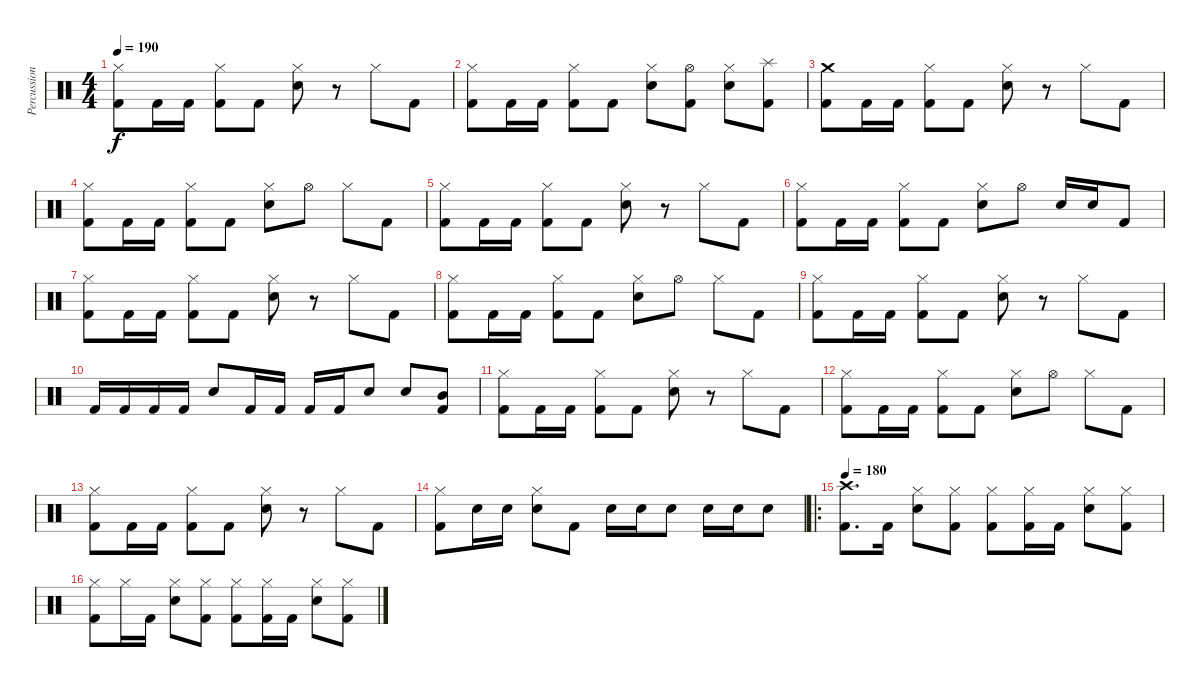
\track ("Percussions" "Percussion") {instrument percussion}
\staff {score}
\articulation defaults
\ts (4 4)
\tempo 190
\clef neutral
\ks c
("Hi-Hat (closed)" "Kick (hit) 2").8{dy f} "Kick (hit) 2".16 "Kick (hit) 2".16 ("Hi-Hat (closed)" "Kick (hit) 2").8 "Kick (hit) 2".8 ("Hi-Hat (closed)" "Electric Snare (hit)").8 r.8 "Hi-Hat (closed)".8 "Kick (hit) 2".8 |
("Hi-Hat (closed)" "Kick (hit) 2").8 "Kick (hit) 2".16 "Kick (hit) 2".16 ("Hi-Hat (closed)" "Kick (hit) 2").8 "Kick (hit) 2".8 ("Hi-Hat (closed)" "Electric Snare (hit)").8 ("Hi-Hat (open)" "Kick (hit) 2").8 ("Hi-Hat (closed)" "Electric Snare (hit)").8 ("Splash (hit)" "Kick (hit) 2").8 |
("Crash medium (hit)" "Kick (hit) 2").8 "Kick (hit) 2".16 "Kick (hit) 2".16 ("Hi-Hat (closed)" "Kick (hit) 2").8 "Kick (hit) 2".8 ("Hi-Hat (closed)" "Electric Snare (hit)").8 r.8 "Hi-Hat (closed)".8 "Kick (hit) 2".8 |
("Hi-Hat (closed)" "Kick (hit) 2").8 "Kick (hit) 2".16 "Kick (hit) 2".16 ("Hi-Hat (closed)" "Kick (hit) 2").8 "Kick (hit) 2".8 ("Hi-Hat (closed)" "Electric Snare (hit)").8 "Hi-Hat (open)".8 "Hi-Hat (closed)".8 "Kick (hit) 2".8 |
("Hi-Hat (closed)" "Kick (hit) 2").8 "Kick (hit) 2".16 "Kick (hit) 2".16 ("Hi-Hat (closed)" "Kick (hit) 2").8 "Kick (hit) 2".8 ("Hi-Hat (closed)" "Electric Snare (hit)").8 r.8 "Hi-Hat (closed)".8 "Kick (hit) 2".8 |
("Hi-Hat (closed)" "Kick (hit) 2").8 "Kick (hit) 2".16 "Kick (hit) 2".16 ("Hi-Hat (closed)" "Kick (hit) 2").8 "Kick (hit) 2".8 ("Hi-Hat (closed)" "Electric Snare (hit)").8 "Hi-Hat (open)".8 "Electric Snare (hit)".16 "Electric Snare (hit)".16 "Kick (hit) 2".8 |
("Hi-Hat (closed)" "Kick (hit) 2").8 "Kick (hit) 2".16 "Kick (hit) 2".16 ("Hi-Hat (closed)" "Kick (hit) 2").8 "Kick (hit) 2".8 ("Hi-Hat (closed)" "Electric Snare (hit)").8 r.8 "Hi-Hat (closed)".8 "Kick (hit) 2".8 |
("Hi-Hat (closed)" "Kick (hit) 2").8 "Kick (hit) 2".16 "Kick (hit) 2".16 ("Hi-Hat (closed)" "Kick (hit) 2").8 "Kick (hit) 2".8 ("Hi-Hat (closed)" "Electric Snare (hit)").8 "Hi-Hat (open)".8 "Hi-Hat (closed)".8 "Kick (hit) 2".8 |
("Hi-Hat (closed)" "Kick (hit) 2").8 "Kick (hit) 2".16 "Kick (hit) 2".16 ("Hi-Hat (closed)" "Kick (hit) 2").8 "Kick (hit) 2".8 ("Hi-Hat (closed)" "Electric Snare (hit)").8 r.8 "Hi-Hat (closed)".8 "Kick (hit) 2".8 |
"Kick (hit) 2".16 "Kick (hit) 2".16 "Kick (hit) 2".16 "Kick (hit) 2".16 "Electric Snare (hit)".8 "Kick (hit) 2".16 "Kick (hit) 2".16 "Kick (hit) 2".16 "Kick (hit) 2".16 "Electric Snare (hit)".8 "Electric Snare (hit)".8 ("Mid Tom (hit)" "Kick (hit) 2").8 |
("Hi-Hat (closed)" "Kick (hit) 2").8 "Kick (hit) 2".16 "Kick (hit) 2".16 ("Hi-Hat (closed)" "Kick (hit) 2").8 "Kick (hit) 2".8 ("Hi-Hat (closed)" "Electric Snare (hit)").8 r.8 "Hi-Hat (closed)".8 "Kick (hit) 2".8 |
("Hi-Hat (closed)" "Kick (hit) 2").8 "Kick (hit) 2".16 "Kick (hit) 2".16 ("Hi-Hat (closed)" "Kick (hit) 2").8 "Kick (hit) 2".8 ("Hi-Hat (closed)" "Electric Snare (hit)").8 "Hi-Hat (open)".8 "Hi-Hat (closed)".8 "Kick (hit) 2".8 |
("Hi-Hat (closed)" "Kick (hit) 2").8 "Kick (hit) 2".16 "Kick (hit) 2".16 ("Hi-Hat (closed)" "Kick (hit) 2").8 "Kick (hit) 2".8 ("Hi-Hat (closed)" "Electric Snare (hit)").8 r.8 "Hi-Hat (closed)".8 "Kick (hit) 2".8 |
("Hi-Hat (closed)" "Kick (hit) 2").8 "Electric Snare (hit)".16 "Electric Snare (hit)".16 ("Hi-Hat (closed)" "Electric Snare (hit)").8 "Kick (hit) 2".8 "Electric Snare (hit)".16 "Electric Snare (hit)".16 "Electric Snare (hit)".8 "Electric Snare (hit)".16 "Electric Snare (hit)".16 "Electric Snare (hit)".8 |
\ro
\tempo 180
("Crash high (hit)" "Kick (hit) 2").8{d} "Kick (hit) 2".16 ("Hi-Hat (closed)" "Electric Snare (hit)").8 ("Hi-Hat (closed)" "Kick (hit) 2").8 ("Hi-Hat (closed)" "Kick (hit) 2").8 ("Hi-Hat (closed)" "Kick (hit) 2").16 "Kick (hit) 2".16 ("Hi-Hat (closed)" "Electric Snare (hit)").8 ("Hi-Hat (closed)" "Kick (hit) 2").8 |
("Hi-Hat (closed)" "Kick (hit) 2").8 "Hi-Hat (closed)".16 "Kick (hit) 2".16 ("Hi-Hat (closed)" "Electric Snare (hit)").8 ("Hi-Hat (closed)" "Kick (hit) 2").8 ("Hi-Hat (closed)" "Kick (hit) 2").8 ("Hi-Hat (closed)" "Kick (hit) 2").16 "Kick (hit) 2".16 ("Hi-Hat (closed)" "Electric Snare (hit)").8 ("Hi-Hat (closed)" "Kick (hit) 2").8
